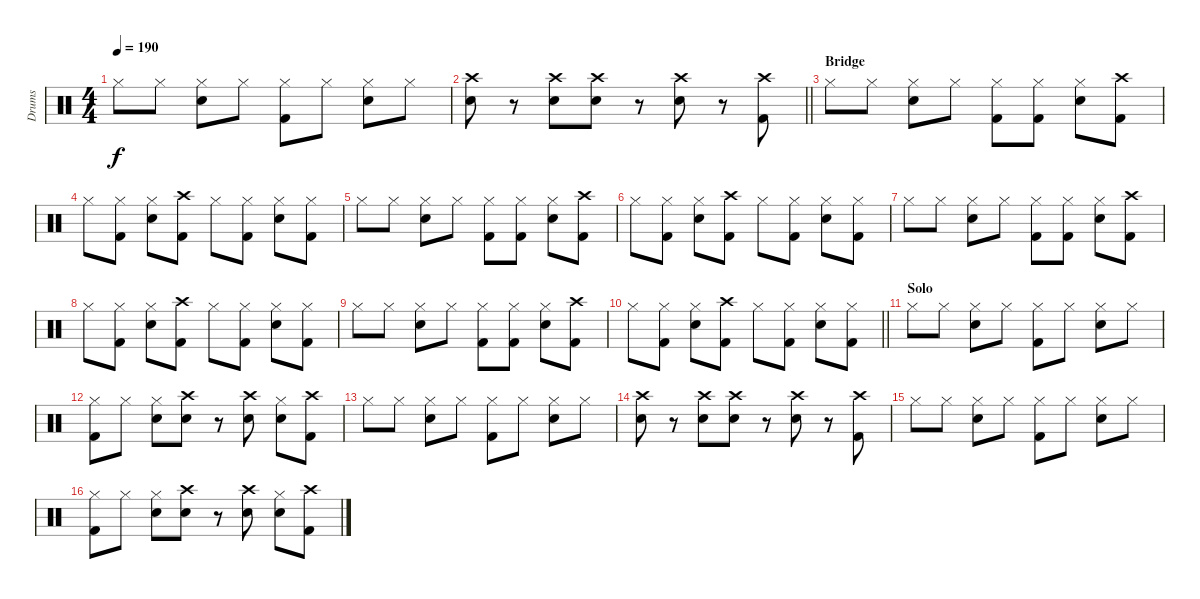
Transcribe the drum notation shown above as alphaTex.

\track ("Drums" "Drums") {instrument percussion}
\staff {score}
\articulation defaults
\ts (4 4)
\tempo 190
\clef neutral
\ks c "Hi-Hat (closed)".8{dy f} "Hi-Hat (closed)".8
("Hi-Hat (closed)" "Snare (hit) 2").8 "Hi-Hat (closed)".8 ("Hi-Hat (closed)" "Kick (hit) 2").8 "Hi-Hat (closed)".8 ("Hi-Hat (closed)" "Snare (hit) 2").8 "Hi-Hat (closed)".8 |
\barLineRight lightlight
("Crash high (hit)" "Snare (hit) 2").8 r.8 ("Crash high (hit)" "Snare (hit) 2").8 ("Crash high (hit)" "Snare (hit) 2").8 r.8 ("Crash high (hit)" "Snare (hit) 2").8 r.8 ("Crash high (hit)" "Kick (hit) 2").8 |
\section ("" "Bridge")
"Hi-Hat (closed)".8 "Hi-Hat (closed)".8 ("Hi-Hat (closed)" "Snare (hit) 2").8 "Hi-Hat (closed)".8 ("Hi-Hat (closed)" "Kick (hit) 2").8 ("Hi-Hat (closed)" "Kick (hit) 2").8 ("Hi-Hat (closed)" "Snare (hit) 2").8 ("Crash high (hit)" "Kick (hit) 2").8 |
"Hi-Hat (closed)".8 ("Hi-Hat (closed)" "Kick (hit) 2").8 ("Hi-Hat (closed)" "Snare (hit) 2").8 ("Crash high (hit)" "Kick (hit) 2").8 "Hi-Hat (closed)".8 ("Hi-Hat (closed)" "Kick (hit) 2").8 ("Hi-Hat (closed)" "Snare (hit) 2").8 ("Hi-Hat (closed)" "Kick (hit) 2").8 |
"Hi-Hat (closed)".8 "Hi-Hat (closed)".8 ("Hi-Hat (closed)" "Snare (hit) 2").8 "Hi-Hat (closed)".8 ("Hi-Hat (closed)" "Kick (hit) 2").8 ("Hi-Hat (closed)" "Kick (hit) 2").8 ("Hi-Hat (closed)" "Snare (hit) 2").8 ("Crash high (hit)" "Kick (hit) 2").8 |
"Hi-Hat (closed)".8 ("Hi-Hat (closed)" "Kick (hit) 2").8 ("Hi-Hat (closed)" "Snare (hit) 2").8 ("Crash high (hit)" "Kick (hit) 2").8 "Hi-Hat (closed)".8 ("Hi-Hat (closed)" "Kick (hit) 2").8 ("Hi-Hat (closed)" "Snare (hit) 2").8 ("Hi-Hat (closed)" "Kick (hit) 2").8 |
"Hi-Hat (closed)".8 "Hi-Hat (closed)".8 ("Hi-Hat (closed)" "Snare (hit) 2").8 "Hi-Hat (closed)".8 ("Hi-Hat (closed)" "Kick (hit) 2").8 ("Hi-Hat (closed)" "Kick (hit) 2").8 ("Hi-Hat (closed)" "Snare (hit) 2").8 ("Crash high (hit)" "Kick (hit) 2").8 |
"Hi-Hat (closed)".8 ("Hi-Hat (closed)" "Kick (hit) 2").8 ("Hi-Hat (closed)" "Snare (hit) 2").8 ("Crash high (hit)" "Kick (hit) 2").8 "Hi-Hat (closed)".8 ("Hi-Hat (closed)" "Kick (hit) 2").8 ("Hi-Hat (closed)" "Snare (hit) 2").8 ("Hi-Hat (closed)" "Kick (hit) 2").8 |
"Hi-Hat (closed)".8 "Hi-Hat (closed)".8 ("Hi-Hat (closed)" "Snare (hit) 2").8 "Hi-Hat (closed)".8 ("Hi-Hat (closed)" "Kick (hit) 2").8 ("Hi-Hat (closed)" "Kick (hit) 2").8 ("Hi-Hat (closed)" "Snare (hit) 2").8 ("Crash high (hit)" "Kick (hit) 2").8 |
\barLineRight lightlight "Hi-Hat (closed)".8
("Hi-Hat (closed)" "Kick (hit) 2").8 ("Hi-Hat (closed)" "Snare (hit) 2").8 ("Crash high (hit)" "Kick (hit) 2").8 "Hi-Hat (closed)".8 ("Hi-Hat (closed)" "Kick (hit) 2").8 ("Hi-Hat (closed)" "Snare (hit) 2").8 ("Hi-Hat (closed)" "Kick (hit) 2").8 |
\section ("" "Solo")
"Hi-Hat (closed)".8 "Hi-Hat (closed)".8 ("Hi-Hat (closed)" "Snare (hit) 2").8 "Hi-Hat (closed)".8 ("Hi-Hat (closed)" "Kick (hit) 2").8 "Hi-Hat (closed)".8 ("Hi-Hat (closed)" "Snare (hit) 2").8 "Hi-Hat (closed)".8 |
("Hi-Hat (closed)" "Kick (hit) 2").8 "Hi-Hat (closed)".8 ("Hi-Hat (closed)" "Snare (hit) 2").8 ("Crash high (hit)" "Snare (hit) 2").8 r.8 ("Crash high (hit)" "Snare (hit) 2").8 ("Hi-Hat (closed)" "Snare (hit) 2").8 ("Crash high (hit)" "Kick (hit) 2").8 |
"Hi-Hat (closed)".8 "Hi-Hat (closed)".8 ("Hi-Hat (closed)" "Snare (hit) 2").8 "Hi-Hat (closed)".8 ("Hi-Hat (closed)" "Kick (hit) 2").8 "Hi-Hat (closed)".8 ("Hi-Hat (closed)" "Snare (hit) 2").8 "Hi-Hat (closed)".8 |
("Crash high (hit)" "Snare (hit) 2").8 r.8 ("Crash high (hit)" "Snare (hit) 2").8 ("Crash high (hit)" "Snare (hit) 2").8 r.8 ("Crash high (hit)" "Snare (hit) 2").8 r.8 ("Crash high (hit)" "Kick (hit) 2").8 |
"Hi-Hat (closed)".8 "Hi-Hat (closed)".8 ("Hi-Hat (closed)" "Snare (hit) 2").8 "Hi-Hat (closed)".8 ("Hi-Hat (closed)" "Kick (hit) 2").8 "Hi-Hat (closed)".8 ("Hi-Hat (closed)" "Snare (hit) 2").8 "Hi-Hat (closed)".8 |
("Hi-Hat (closed)" "Kick (hit) 2").8 "Hi-Hat (closed)".8 ("Hi-Hat (closed)" "Snare (hit) 2").8 ("Crash high (hit)" "Snare (hit) 2").8 r.8 ("Crash high (hit)" "Snare (hit) 2").8 ("Hi-Hat (closed)" "Snare (hit) 2").8 ("Crash high (hit)" "Kick (hit) 2").8
